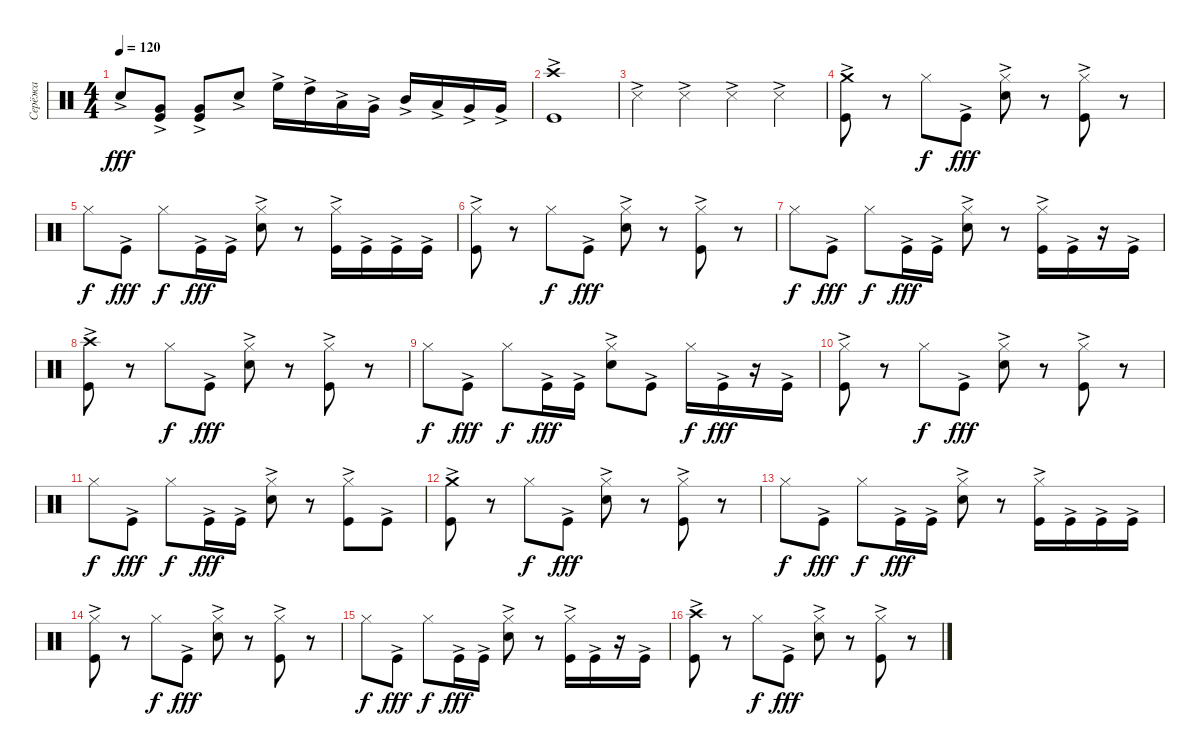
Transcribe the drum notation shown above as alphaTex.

\track ("Серёжа" "Серёжа") {instrument percussion}
\staff {score}
\articulation defaults
\ts (4 4)
\tempo 120
\clef neutral
\ks c "Snare (hit) 2"{ac}.8{dy fff}
("Very Low Tom (hit)"{ac} "Kick (hit)"{ac}).8 ("Very Low Tom (hit)"{ac} "Kick (hit)"{ac}).8 "Snare (hit) 2"{ac}.8 "High Floor Tom (hit)"{ac}.16 "High Tom (hit)"{ac}.16 "Low Tom (hit)"{ac}.16 "Very Low Tom (hit)"{ac}.16 "Mid Tom (hit)"{ac}.16 "Low Tom (hit)"{ac}.16 "Very Low Tom (hit)"{ac}.16 "Very Low Tom (hit)"{ac}.16 |
("Crash high (hit)"{ac} "Kick (hit)"{ac}).1 |
"Snare (side stick) 3"{ac}.4 "Snare (side stick) 3"{ac}.4 "Snare (side stick) 3"{ac}.4 "Snare (side stick) 3"{ac}.4 |
("Crash medium (hit)"{ac} "Kick (hit)"{ac}).8 r.8 "Hi-Hat (closed)".8{dy f} "Kick (hit)"{ac}.8{dy fff} ("Hi-Hat (closed)" "Snare (hit) 2"{ac}).8 r.8 ("Hi-Hat (closed)" "Kick (hit)"{ac}).8 r.8 |
"Hi-Hat (closed)".8{dy f} "Kick (hit)"{ac}.8{dy fff} "Hi-Hat (closed)".8{dy f} "Kick (hit)"{ac}.16{dy fff} "Kick (hit)"{ac}.16 ("Hi-Hat (closed)" "Snare (hit) 2"{ac}).8 r.8 ("Hi-Hat (closed)" "Kick (hit)"{ac}).16 "Kick (hit)"{ac}.16 "Kick (hit)"{ac}.16 "Kick (hit)"{ac}.16 |
("Hi-Hat (closed)" "Kick (hit)"{ac}).8 r.8 "Hi-Hat (closed)".8{dy f} "Kick (hit)"{ac}.8{dy fff} ("Hi-Hat (closed)" "Snare (hit) 2"{ac}).8 r.8 ("Hi-Hat (closed)" "Kick (hit)"{ac}).8 r.8 |
"Hi-Hat (closed)".8{dy f} "Kick (hit)"{ac}.8{dy fff} "Hi-Hat (closed)".8{dy f} "Kick (hit)"{ac}.16{dy fff} "Kick (hit)"{ac}.16 ("Hi-Hat (closed)" "Snare (hit) 2"{ac}).8 r.8 ("Hi-Hat (closed)" "Kick (hit)"{ac}).16 "Kick (hit)"{ac}.16 r.16 "Kick (hit)"{ac}.16 |
("Crash high (hit)"{ac} "Kick (hit)"{ac}).8 r.8 "Hi-Hat (closed)".8{dy f} "Kick (hit)"{ac}.8{dy fff} ("Hi-Hat (closed)" "Snare (hit) 2"{ac}).8 r.8 ("Hi-Hat (closed)" "Kick (hit)"{ac}).8 r.8 |
"Hi-Hat (closed)".8{dy f} "Kick (hit)"{ac}.8{dy fff} "Hi-Hat (closed)".8{dy f} "Kick (hit)"{ac}.16{dy fff} "Kick (hit)"{ac}.16 ("Hi-Hat (closed)" "Snare (hit) 2"{ac}).8 "Kick (hit)"{ac}.8 "Hi-Hat (closed)".16{dy f} "Kick (hit)"{ac}.16{dy fff} r.16 "Kick (hit)"{ac}.16 |
("Hi-Hat (closed)" "Kick (hit)"{ac}).8 r.8 "Hi-Hat (closed)".8{dy f} "Kick (hit)"{ac}.8{dy fff} ("Hi-Hat (closed)" "Snare (hit) 2"{ac}).8 r.8 ("Hi-Hat (closed)" "Kick (hit)"{ac}).8 r.8 |
"Hi-Hat (closed)".8{dy f} "Kick (hit)"{ac}.8{dy fff} "Hi-Hat (closed)".8{dy f} "Kick (hit)"{ac}.16{dy fff} "Kick (hit)"{ac}.16 ("Hi-Hat (closed)" "Snare (hit) 2"{ac}).8 r.8 ("Hi-Hat (closed)" "Kick (hit)"{ac}).8 "Kick (hit)"{ac}.8 |
("Crash medium (hit)"{ac} "Kick (hit)"{ac}).8 r.8 "Hi-Hat (closed)".8{dy f} "Kick (hit)"{ac}.8{dy fff} ("Hi-Hat (closed)" "Snare (hit) 2"{ac}).8 r.8 ("Hi-Hat (closed)" "Kick (hit)"{ac}).8 r.8 |
"Hi-Hat (closed)".8{dy f} "Kick (hit)"{ac}.8{dy fff} "Hi-Hat (closed)".8{dy f} "Kick (hit)"{ac}.16{dy fff} "Kick (hit)"{ac}.16 ("Hi-Hat (closed)" "Snare (hit) 2"{ac}).8 r.8 ("Hi-Hat (closed)" "Kick (hit)"{ac}).16 "Kick (hit)"{ac}.16 "Kick (hit)"{ac}.16 "Kick (hit)"{ac}.16 |
("Hi-Hat (closed)" "Kick (hit)"{ac}).8 r.8 "Hi-Hat (closed)".8{dy f} "Kick (hit)"{ac}.8{dy fff} ("Hi-Hat (closed)" "Snare (hit) 2"{ac}).8 r.8 ("Hi-Hat (closed)" "Kick (hit)"{ac}).8 r.8 |
"Hi-Hat (closed)".8{dy f} "Kick (hit)"{ac}.8{dy fff} "Hi-Hat (closed)".8{dy f} "Kick (hit)"{ac}.16{dy fff} "Kick (hit)"{ac}.16 ("Hi-Hat (closed)" "Snare (hit) 2"{ac}).8 r.8 ("Hi-Hat (closed)" "Kick (hit)"{ac}).16 "Kick (hit)"{ac}.16 r.16 "Kick (hit)"{ac}.16 |
("Crash high (hit)"{ac} "Kick (hit)"{ac}).8 r.8 "Hi-Hat (closed)".8{dy f} "Kick (hit)"{ac}.8{dy fff} ("Hi-Hat (closed)" "Snare (hit) 2"{ac}).8 r.8 ("Hi-Hat (closed)" "Kick (hit)"{ac}).8 r.8
